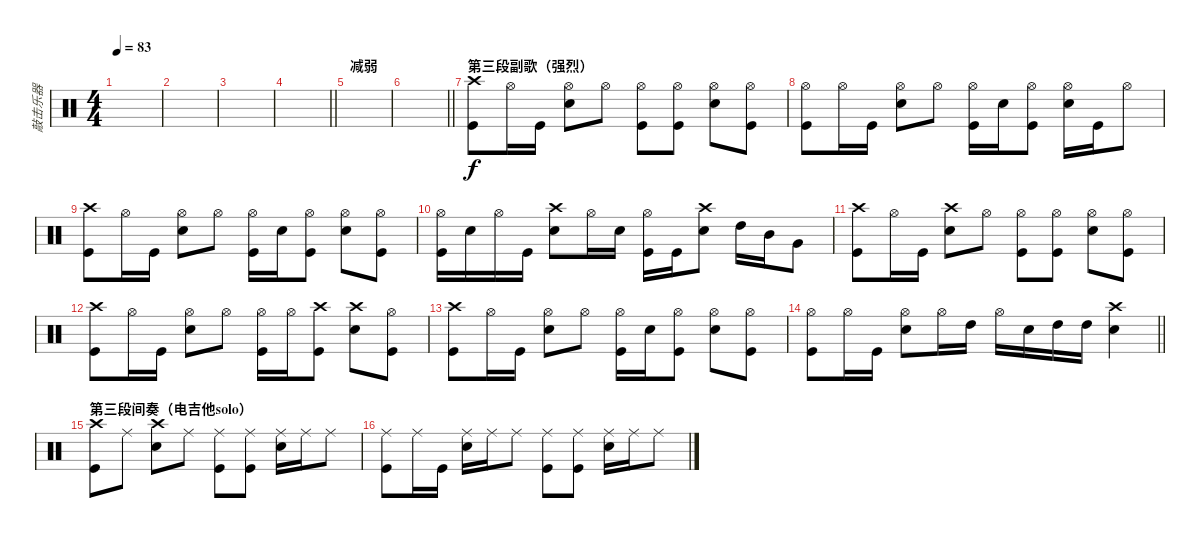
\track ("敲击乐器" "敲击乐器") {mute instrument percussion}
\staff {score}
\articulation defaults
\ts (4 4)
\tempo 83
\clef neutral
\ks c
|
|
|
\barLineRight lightlight
|
\section ("" "减弱")
|
\barLineRight lightlight
|
\section ("" "第三段副歌（强烈）")
("Crash high (hit)" "Kick (hit)").8 "Hi-Hat (open)".16 "Kick (hit)".16 ("Hi-Hat (open)" "Snare (hit) 2").8 "Hi-Hat (open)".8 ("Hi-Hat (open)" "Kick (hit)").8 ("Hi-Hat (open)" "Kick (hit)").8 ("Snare (hit) 2" "Hi-Hat (open)").8 ("Hi-Hat (open)" "Kick (hit)").8 |
("Hi-Hat (open)" "Kick (hit)").8 "Hi-Hat (open)".16 "Kick (hit)".16 ("Hi-Hat (open)" "Snare (hit) 2").8 "Hi-Hat (open)".8 ("Hi-Hat (open)" "Kick (hit)").16 "Snare (hit) 2".16 ("Hi-Hat (open)" "Kick (hit)").8 ("Hi-Hat (open)" "Snare (hit) 2").16 "Kick (hit)".16 "Hi-Hat (open)".8 |
("Crash high (hit)" "Kick (hit)").8 "Hi-Hat (open)".16 "Kick (hit)".16 ("Hi-Hat (open)" "Snare (hit) 2").8 "Hi-Hat (open)".8 ("Hi-Hat (open)" "Kick (hit)").16 "Snare (hit) 2".16 ("Hi-Hat (open)" "Kick (hit)").8 ("Hi-Hat (open)" "Snare (hit) 2").8 ("Hi-Hat (open)" "Kick (hit)").8 |
("Hi-Hat (open)" "Kick (hit)").16 "Snare (hit) 2".16 "Hi-Hat (open)".16 "Kick (hit)".16 ("Crash high (hit)" "Snare (hit) 2").8 "Hi-Hat (open)".16 "Snare (hit) 2".16 ("Hi-Hat (open)" "Kick (hit)").16 "Kick (hit)".16 ("Crash high (hit)" "Snare (hit) 2").8 "High Tom (hit)".16 "Mid Tom (hit)".16 "Very Low Tom (hit)".8 |
("Crash high (hit)" "Kick (hit)").8 "Hi-Hat (open)".16 "Kick (hit)".16 ("Crash high (hit)" "Snare (hit) 2").8 "Hi-Hat (open)".8 ("Hi-Hat (open)" "Kick (hit)").8 ("Hi-Hat (open)" "Kick (hit)").8 ("Snare (hit) 2" "Hi-Hat (open)").8 ("Hi-Hat (open)" "Kick (hit)").8 |
("Crash high (hit)" "Kick (hit)").8 "Hi-Hat (open)".16 "Kick (hit)".16 ("Hi-Hat (open)" "Snare (hit) 2").8 "Hi-Hat (open)".8 ("Hi-Hat (open)" "Kick (hit)").16 "Hi-Hat (open)".16 ("Crash high (hit)" "Kick (hit)").8 ("Crash high (hit)" "Snare (hit) 2").8 ("Hi-Hat (open)" "Kick (hit)").8 |
("Crash high (hit)" "Kick (hit)").8 "Hi-Hat (open)".16 "Kick (hit)".16 ("Hi-Hat (open)" "Snare (hit) 2").8 "Hi-Hat (open)".8 ("Hi-Hat (open)" "Kick (hit)").16 "Snare (hit) 2".16 ("Hi-Hat (open)" "Kick (hit)").8 ("Hi-Hat (open)" "Snare (hit) 2").8 ("Hi-Hat (open)" "Kick (hit)").8 |
\barLineRight lightlight
("Hi-Hat (open)" "Kick (hit)").8 "Hi-Hat (open)".16 "Kick (hit)".16 ("Hi-Hat (open)" "Snare (hit) 2").8 "Hi-Hat (open)".16 "High Tom (hit)".16 "Hi-Hat (open)".16 "Snare (hit) 2".16 "High Tom (hit)".16 "High Tom (hit)".16 ("Crash high (hit)" "Snare (hit) 2").4 |
\section ("" "第三段间奏（电吉他solo）")
("Crash high (hit)" "Kick (hit)").8 "Ride (middle)".8 ("Crash high (hit)" "Snare (hit) 2").8 "Ride (middle)".8 ("Ride (middle)" "Kick (hit)").8 ("Ride (middle)" "Kick (hit)").8 ("Ride (middle)" "Snare (hit) 2").16 "Ride (middle)".16 "Ride (middle)".8 |
("Ride (middle)" "Kick (hit)").8 "Ride (middle)".16 "Kick (hit)".16 ("Snare (hit) 2" "Ride (middle)").16 "Ride (middle)".16 "Ride (middle)".8 ("Ride (middle)" "Kick (hit)").8 ("Ride (middle)" "Kick (hit)").8 ("Snare (hit) 2" "Ride (middle)").16 "Ride (middle)".16 "Ride (middle)".8
